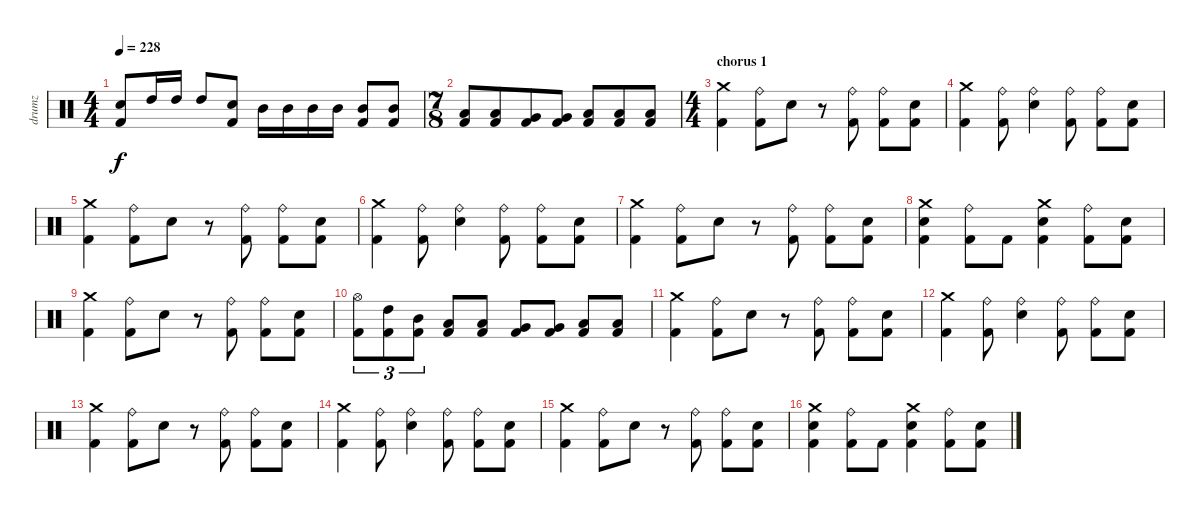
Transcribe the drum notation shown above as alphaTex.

\track ("drumz" "drumz") {instrument percussion}
\staff {score}
\articulation defaults
\ts (4 4)
\tempo 228
\clef neutral
\ks c
("Snare (hit) 2" "Kick (hit) 2").8{dy f} "High Tom (hit)".16 "High Tom (hit)".16 "High Tom (hit)".8 ("Snare (hit) 2" "Kick (hit) 2").8 "Mid Tom (hit)".16 "Mid Tom (hit)".16 "Mid Tom (hit)".16 "Mid Tom (hit)".16 ("Mid Tom (hit)" "Kick (hit) 2").8 ("Mid Tom (hit)" "Kick (hit) 2").8 |
\ts (7 8)
("Low Tom (hit)" "Kick (hit) 2").8 ("Low Tom (hit)" "Kick (hit) 2").8 ("Very Low Tom (hit)" "Kick (hit) 2").8 ("Very Low Tom (hit)" "Kick (hit) 2").8 ("Low Floor Tom (hit)" "Kick (hit) 2").8 ("Low Floor Tom (hit)" "Kick (hit) 2").8 ("Low Floor Tom (hit)" "Kick (hit) 2").8 |
\ts (4 4)
\section ("" "chorus 1")
("Crash medium (hit)" "Kick (hit) 2").4 ("Ride (bell)" "Kick (hit) 2").8 "Snare (hit) 2".8 r.8 ("Ride (bell)" "Kick (hit) 2").8 ("Ride (bell)" "Kick (hit) 2").8 ("Snare (hit) 2" "Kick (hit) 2").8 |
("Crash medium (hit)" "Kick (hit) 2").4 ("Ride (bell)" "Kick (hit) 2").8 ("Ride (bell)" "Snare (hit) 2").4 ("Ride (bell)" "Kick (hit) 2").8 ("Ride (bell)" "Kick (hit) 2").8 ("Snare (hit) 2" "Kick (hit) 2").8 |
("Crash medium (hit)" "Kick (hit) 2").4 ("Ride (bell)" "Kick (hit) 2").8 "Snare (hit) 2".8 r.8 ("Ride (bell)" "Kick (hit) 2").8 ("Ride (bell)" "Kick (hit) 2").8 ("Snare (hit) 2" "Kick (hit) 2").8 |
("Crash medium (hit)" "Kick (hit) 2").4 ("Ride (bell)" "Kick (hit) 2").8 ("Ride (bell)" "Snare (hit) 2").4 ("Ride (bell)" "Kick (hit) 2").8 ("Ride (bell)" "Kick (hit) 2").8 ("Snare (hit) 2" "Kick (hit) 2").8 |
("Crash medium (hit)" "Kick (hit) 2").4 ("Ride (bell)" "Kick (hit) 2").8 "Snare (hit) 2".8 r.8 ("Ride (bell)" "Kick (hit) 2").8 ("Ride (bell)" "Kick (hit) 2").8 ("Snare (hit) 2" "Kick (hit) 2").8 |
("Crash medium (hit)" "Snare (hit) 2" "Kick (hit) 2").4 ("Ride (bell)" "Kick (hit) 2").8 "Kick (hit) 2".8 ("Crash medium (hit)" "Snare (hit) 2" "Kick (hit) 2").4 ("Ride (bell)" "Kick (hit) 2").8 ("Snare (hit) 2" "Kick (hit) 2").8 |
("Crash medium (hit)" "Kick (hit) 2").4 ("Ride (bell)" "Kick (hit) 2").8 "Snare (hit) 2".8 r.8 ("Ride (bell)" "Kick (hit) 2").8 ("Ride (bell)" "Kick (hit) 2").8 ("Snare (hit) 2" "Kick (hit) 2").8 |
("Hi-Hat (open)" "Kick (hit) 2").8{tu (3 2)} ("High Tom (hit)" "Kick (hit) 2").8{tu (3 2)} ("Mid Tom (hit)" "Kick (hit) 2").8{tu (3 2)} ("Low Tom (hit)" "Kick (hit) 2").8 ("Low Tom (hit)" "Kick (hit) 2").8 ("Very Low Tom (hit)" "Kick (hit) 2").8 ("Very Low Tom (hit)" "Kick (hit) 2").8 ("Low Floor Tom (hit)" "Kick (hit) 2").8 ("Low Floor Tom (hit)" "Kick (hit) 2").8 |
("Crash medium (hit)" "Kick (hit) 2").4 ("Ride (bell)" "Kick (hit) 2").8 "Snare (hit) 2".8 r.8 ("Ride (bell)" "Kick (hit) 2").8 ("Ride (bell)" "Kick (hit) 2").8 ("Snare (hit) 2" "Kick (hit) 2").8 |
("Crash medium (hit)" "Kick (hit) 2").4 ("Ride (bell)" "Kick (hit) 2").8 ("Ride (bell)" "Snare (hit) 2").4 ("Ride (bell)" "Kick (hit) 2").8 ("Ride (bell)" "Kick (hit) 2").8 ("Snare (hit) 2" "Kick (hit) 2").8 |
("Crash medium (hit)" "Kick (hit) 2").4 ("Ride (bell)" "Kick (hit) 2").8 "Snare (hit) 2".8 r.8 ("Ride (bell)" "Kick (hit) 2").8 ("Ride (bell)" "Kick (hit) 2").8 ("Snare (hit) 2" "Kick (hit) 2").8 |
("Crash medium (hit)" "Kick (hit) 2").4 ("Ride (bell)" "Kick (hit) 2").8 ("Ride (bell)" "Snare (hit) 2").4 ("Ride (bell)" "Kick (hit) 2").8 ("Ride (bell)" "Kick (hit) 2").8 ("Snare (hit) 2" "Kick (hit) 2").8 |
("Crash medium (hit)" "Kick (hit) 2").4 ("Ride (bell)" "Kick (hit) 2").8 "Snare (hit) 2".8 r.8 ("Ride (bell)" "Kick (hit) 2").8 ("Ride (bell)" "Kick (hit) 2").8 ("Snare (hit) 2" "Kick (hit) 2").8 |
("Crash medium (hit)" "Snare (hit) 2" "Kick (hit) 2").4 ("Ride (bell)" "Kick (hit) 2").8 "Kick (hit) 2".8 ("Crash medium (hit)" "Snare (hit) 2" "Kick (hit) 2").4 ("Ride (bell)" "Kick (hit) 2").8 ("Snare (hit) 2" "Kick (hit) 2").8
